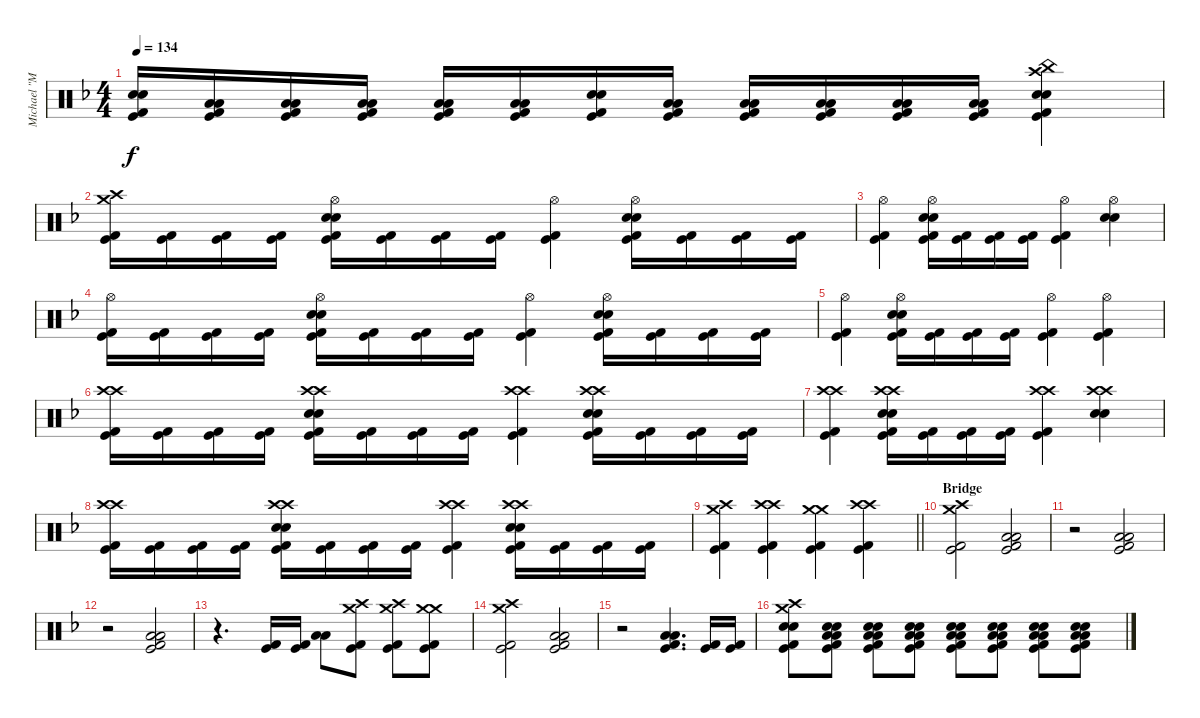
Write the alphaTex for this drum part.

\track ("Michael \"Moose\" Thomas" "Michael \"M") {instrument percussion}
\staff {score}
\articulation defaults
\ts (4 4)
\tempo 134
\clef neutral
\ks f
("Electric Snare (hit)" "Electric Snare (hit)" "Kick (hit)" "Kick (hit) 2").16{dy f} ("Low Tom (hit)" "Low Tom (hit)" "Kick (hit)" "Kick (hit) 2").16 ("Low Tom (hit)" "Low Floor Tom (hit)" "Kick (hit)" "Kick (hit) 2").16 ("Low Floor Tom (hit)" "Low Floor Tom (hit)" "Kick (hit)" "Kick (hit) 2").16 ("Low Tom (hit)" "Low Floor Tom (hit)" "Kick (hit)" "Kick (hit) 2").16 ("Low Floor Tom (hit)" "Low Floor Tom (hit)" "Kick (hit)" "Kick (hit) 2").16 ("Electric Snare (hit)" "Electric Snare (hit)" "Kick (hit)" "Kick (hit) 2").16 ("Low Tom (hit)" "Low Tom (hit)" "Kick (hit)" "Kick (hit) 2").16 ("Low Tom (hit)" "Low Floor Tom (hit)" "Kick (hit)" "Kick (hit) 2").16 ("Low Floor Tom (hit)" "Low Floor Tom (hit)" "Kick (hit)" "Kick (hit) 2").16 ("Low Tom (hit)" "Low Floor Tom (hit)" "Kick (hit)" "Kick (hit) 2").16 ("Low Floor Tom (hit)" "Low Floor Tom (hit)" "Kick (hit)" "Kick (hit) 2").16 ("Crash high (hit)" "China (hit)" "Electric Snare (hit)" "Electric Snare (hit)" "Kick (hit)" "Kick (hit) 2").4 |
("Crash high (hit)" "Crash medium (hit)" "Kick (hit)" "Kick (hit) 2").16 ("Kick (hit)" "Kick (hit) 2").16 ("Kick (hit)" "Kick (hit) 2").16 ("Kick (hit)" "Kick (hit) 2").16 ("Hi-Hat (open)" "Electric Snare (hit)" "Electric Snare (hit)" "Kick (hit)" "Kick (hit) 2").16 ("Kick (hit)" "Kick (hit) 2").16 ("Kick (hit)" "Kick (hit) 2").16 ("Kick (hit)" "Kick (hit) 2").16 ("Hi-Hat (open)" "Kick (hit)" "Kick (hit) 2").4 ("Hi-Hat (open)" "Electric Snare (hit)" "Electric Snare (hit)" "Kick (hit)" "Kick (hit) 2").16 ("Kick (hit)" "Kick (hit) 2").16 ("Kick (hit)" "Kick (hit) 2").16 ("Kick (hit)" "Kick (hit) 2").16 |
("Hi-Hat (open)" "Kick (hit)" "Kick (hit) 2").4 ("Hi-Hat (open)" "Electric Snare (hit)" "Electric Snare (hit)" "Kick (hit)" "Kick (hit) 2").16 ("Kick (hit)" "Kick (hit) 2").16 ("Kick (hit)" "Kick (hit) 2").16 ("Kick (hit)" "Kick (hit) 2").16 ("Hi-Hat (open)" "Kick (hit)" "Kick (hit) 2").4 ("Hi-Hat (open)" "Electric Snare (hit)" "Electric Snare (hit)").4 |
("Hi-Hat (open)" "Kick (hit)" "Kick (hit) 2").16 ("Kick (hit)" "Kick (hit) 2").16 ("Kick (hit)" "Kick (hit) 2").16 ("Kick (hit)" "Kick (hit) 2").16 ("Hi-Hat (open)" "Electric Snare (hit)" "Electric Snare (hit)" "Kick (hit)" "Kick (hit) 2").16 ("Kick (hit)" "Kick (hit) 2").16 ("Kick (hit)" "Kick (hit) 2").16 ("Kick (hit)" "Kick (hit) 2").16 ("Hi-Hat (open)" "Kick (hit)" "Kick (hit) 2").4 ("Hi-Hat (open)" "Electric Snare (hit)" "Electric Snare (hit)" "Kick (hit)" "Kick (hit) 2").16 ("Kick (hit)" "Kick (hit) 2").16 ("Kick (hit)" "Kick (hit) 2").16 ("Kick (hit)" "Kick (hit) 2").16 |
("Hi-Hat (open)" "Kick (hit)" "Kick (hit) 2").4 ("Hi-Hat (open)" "Electric Snare (hit)" "Electric Snare (hit)" "Kick (hit)" "Kick (hit) 2").16 ("Kick (hit)" "Kick (hit) 2").16 ("Kick (hit)" "Kick (hit) 2").16 ("Kick (hit)" "Kick (hit) 2").16 ("Hi-Hat (open)" "Kick (hit)" "Kick (hit) 2").4 ("Hi-Hat (open)" "Kick (hit)" "Kick (hit) 2").4 |
("Crash high (hit)" "Crash high (hit)" "Kick (hit)" "Kick (hit) 2").16 ("Kick (hit)" "Kick (hit) 2").16 ("Kick (hit)" "Kick (hit) 2").16 ("Kick (hit)" "Kick (hit) 2").16 ("Crash high (hit)" "Crash high (hit)" "Electric Snare (hit)" "Electric Snare (hit)" "Kick (hit)" "Kick (hit) 2").16 ("Kick (hit)" "Kick (hit) 2").16 ("Kick (hit)" "Kick (hit) 2").16 ("Kick (hit)" "Kick (hit) 2").16 ("Crash high (hit)" "Crash high (hit)" "Kick (hit)" "Kick (hit) 2").4 ("Crash high (hit)" "Crash high (hit)" "Electric Snare (hit)" "Electric Snare (hit)" "Kick (hit)" "Kick (hit) 2").16 ("Kick (hit)" "Kick (hit) 2").16 ("Kick (hit)" "Kick (hit) 2").16 ("Kick (hit)" "Kick (hit) 2").16 |
("Crash high (hit)" "Crash high (hit)" "Kick (hit)" "Kick (hit) 2").4 ("Crash high (hit)" "Crash high (hit)" "Electric Snare (hit)" "Electric Snare (hit)" "Kick (hit)" "Kick (hit) 2").16 ("Kick (hit)" "Kick (hit) 2").16 ("Kick (hit)" "Kick (hit) 2").16 ("Kick (hit)" "Kick (hit) 2").16 ("Crash high (hit)" "Crash high (hit)" "Kick (hit)" "Kick (hit) 2").4 ("Crash high (hit)" "Crash high (hit)" "Electric Snare (hit)" "Electric Snare (hit)").4 |
("Crash high (hit)" "Crash high (hit)" "Kick (hit)" "Kick (hit) 2").16 ("Kick (hit)" "Kick (hit) 2").16 ("Kick (hit)" "Kick (hit) 2").16 ("Kick (hit)" "Kick (hit) 2").16 ("Crash high (hit)" "Crash high (hit)" "Electric Snare (hit)" "Electric Snare (hit)" "Kick (hit)" "Kick (hit) 2").16 ("Kick (hit)" "Kick (hit) 2").16 ("Kick (hit)" "Kick (hit) 2").16 ("Kick (hit)" "Kick (hit) 2").16 ("Crash high (hit)" "Crash high (hit)" "Kick (hit)" "Kick (hit) 2").4 ("Crash high (hit)" "Crash high (hit)" "Electric Snare (hit)" "Electric Snare (hit)" "Kick (hit)" "Kick (hit) 2").16 ("Kick (hit)" "Kick (hit) 2").16 ("Kick (hit)" "Kick (hit) 2").16 ("Kick (hit)" "Kick (hit) 2").16 |
\barLineRight lightlight
("Crash high (hit)" "Crash medium (hit)" "Kick (hit)" "Kick (hit) 2").4 ("Crash high (hit)" "Crash high (hit)" "Kick (hit)" "Kick (hit) 2").4 ("Crash medium (hit)" "Crash medium (hit)" "Kick (hit)" "Kick (hit) 2").4 ("Crash high (hit)" "Crash high (hit)" "Kick (hit)" "Kick (hit) 2").4 |
\section ("" "Bridge")
("Crash high (hit)" "Crash medium (hit)" "Kick (hit)" "Kick (hit) 2").2 ("Low Tom (hit)" "Low Floor Tom (hit)" "Kick (hit)" "Kick (hit) 2").2 |
r.2 ("Low Tom (hit)" "Low Floor Tom (hit)" "Kick (hit)" "Kick (hit) 2").2 |
r.2 ("Low Tom (hit)" "Low Floor Tom (hit)" "Kick (hit)" "Kick (hit) 2").2 |
r.4{d} ("Kick (hit)" "Kick (hit) 2").16 ("Kick (hit)" "Kick (hit) 2").16 ("Low Tom (hit)" "Low Floor Tom (hit)").8 ("Crash high (hit)" "Crash medium (hit)" "Kick (hit)" "Kick (hit) 2").8 ("Crash medium (hit)" "Crash high (hit)" "Kick (hit)" "Kick (hit) 2").8 ("Crash medium (hit)" "Crash medium (hit)" "Kick (hit)" "Kick (hit) 2").8 |
("Crash high (hit)" "Crash medium (hit)" "Kick (hit)" "Kick (hit) 2").2 ("Low Tom (hit)" "Low Floor Tom (hit)" "Kick (hit)" "Kick (hit) 2").2 |
r.2 ("Low Tom (hit)" "Low Floor Tom (hit)" "Kick (hit)" "Kick (hit) 2").4{d} ("Kick (hit)" "Kick (hit) 2").16 ("Kick (hit)" "Kick (hit) 2").16 |
("Crash high (hit)" "Crash medium (hit)" "Electric Snare (hit)" "Electric Snare (hit)" "Kick (hit)" "Kick (hit) 2").8 ("Low Floor Tom (hit)" "Low Floor Tom (hit)" "Electric Snare (hit)" "Electric Snare (hit)" "Kick (hit)" "Kick (hit) 2").8 ("Low Floor Tom (hit)" "Low Floor Tom (hit)" "Electric Snare (hit)" "Electric Snare (hit)" "Kick (hit)" "Kick (hit) 2").8 ("Low Floor Tom (hit)" "Low Floor Tom (hit)" "Electric Snare (hit)" "Electric Snare (hit)" "Kick (hit)" "Kick (hit) 2").8 ("Low Floor Tom (hit)" "Low Floor Tom (hit)" "Electric Snare (hit)" "Electric Snare (hit)" "Kick (hit)" "Kick (hit) 2").8 ("Low Floor Tom (hit)" "Low Floor Tom (hit)" "Electric Snare (hit)" "Electric Snare (hit)" "Kick (hit)" "Kick (hit) 2").8 ("Low Floor Tom (hit)" "Low Floor Tom (hit)" "Electric Snare (hit)" "Electric Snare (hit)" "Kick (hit)" "Kick (hit) 2").8 ("Low Floor Tom (hit)" "Low Floor Tom (hit)" "Electric Snare (hit)" "Electric Snare (hit)" "Kick (hit)" "Kick (hit) 2").8
